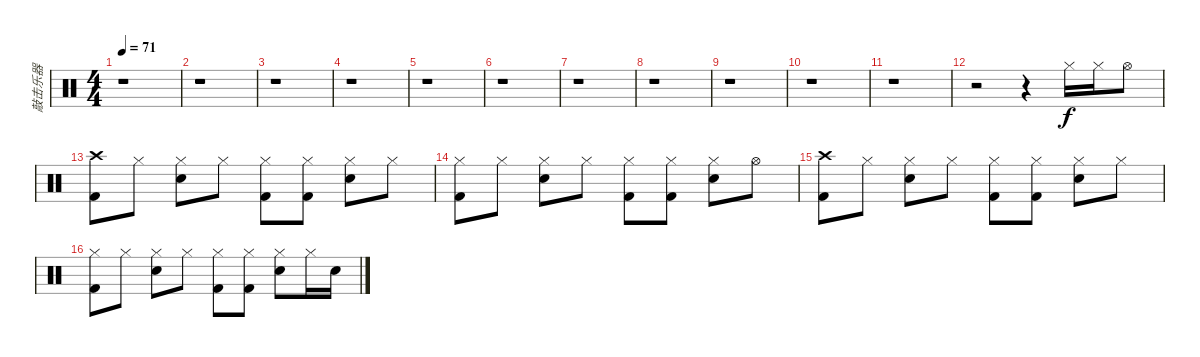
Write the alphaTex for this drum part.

\track ("敲击乐器" "敲击乐器") {instrument percussion}
\staff {score}
\articulation defaults
\ts (4 4)
\tempo 71
\clef neutral
\ks c
r.1{dy f} |
r.1 |
r.1 |
r.1 |
r.1 |
r.1 |
r.1 |
r.1 |
r.1 |
r.1 |
r.1 |
r.2 r.4 "Hi-Hat (closed)".16 "Hi-Hat (closed)".16 "Hi-Hat (open)".8 |
("Crash high (hit)" "Kick (hit) 2").8 "Hi-Hat (closed)".8 ("Hi-Hat (closed)" "Electric Snare (hit)").8 "Hi-Hat (closed)".8 ("Hi-Hat (closed)" "Kick (hit) 2").8 ("Hi-Hat (closed)" "Kick (hit) 2").8 ("Hi-Hat (closed)" "Electric Snare (hit)").8 "Hi-Hat (closed)".8 |
("Hi-Hat (closed)" "Kick (hit) 2").8 "Hi-Hat (closed)".8 ("Hi-Hat (closed)" "Electric Snare (hit)").8 "Hi-Hat (closed)".8 ("Hi-Hat (closed)" "Kick (hit) 2").8 ("Hi-Hat (closed)" "Kick (hit) 2").8 ("Hi-Hat (closed)" "Electric Snare (hit)").8 "Hi-Hat (open)".8 |
("Crash high (hit)" "Kick (hit) 2").8 "Hi-Hat (closed)".8 ("Hi-Hat (closed)" "Electric Snare (hit)").8 "Hi-Hat (closed)".8 ("Hi-Hat (closed)" "Kick (hit) 2").8 ("Hi-Hat (closed)" "Kick (hit) 2").8 ("Hi-Hat (closed)" "Electric Snare (hit)").8 "Hi-Hat (closed)".8 |
("Hi-Hat (closed)" "Kick (hit) 2").8 "Hi-Hat (closed)".8 ("Hi-Hat (closed)" "Electric Snare (hit)").8 "Hi-Hat (closed)".8 ("Hi-Hat (closed)" "Kick (hit) 2").8 ("Hi-Hat (closed)" "Kick (hit) 2").8 ("Hi-Hat (closed)" "Electric Snare (hit)").8 "Hi-Hat (closed)".16 "Electric Snare (hit)".16
